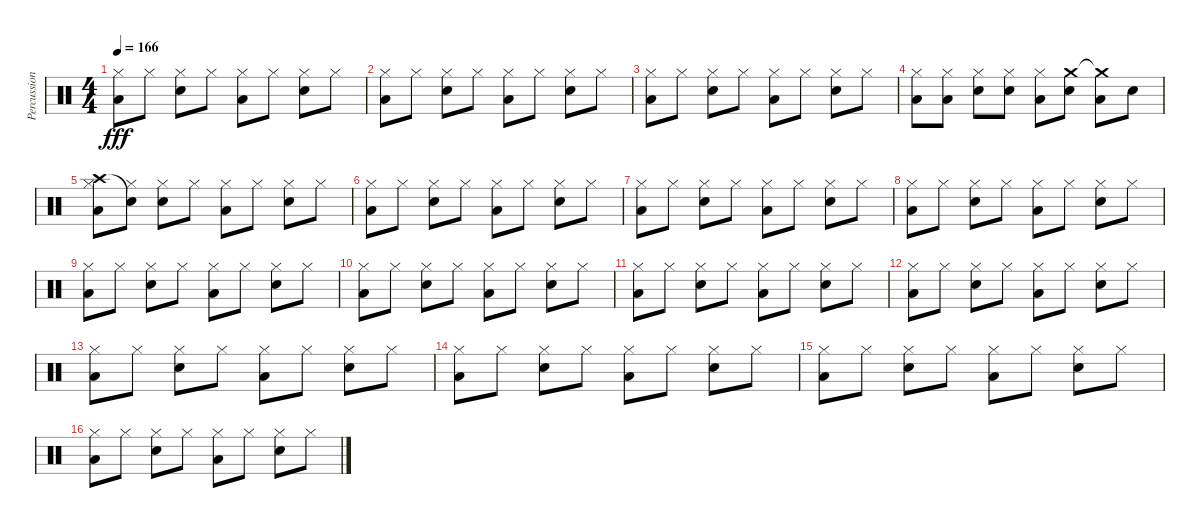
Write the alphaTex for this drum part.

\track ("Percussions" "Percussion") {instrument percussion}
\staff {score}
\articulation defaults
\ts (4 4)
\tempo 166
\clef neutral
\ks c
("Low Tom (hit)" "Hi-Hat (closed)").8{dy fff} "Hi-Hat (closed)".8 ("Snare (hit) 2" "Hi-Hat (closed)").8 "Hi-Hat (closed)".8 ("Low Tom (hit)" "Hi-Hat (closed)").8 "Hi-Hat (closed)".8 ("Snare (hit) 2" "Hi-Hat (closed)").8 "Hi-Hat (closed)".8 |
("Low Tom (hit)" "Hi-Hat (closed)").8 "Hi-Hat (closed)".8 ("Snare (hit) 2" "Hi-Hat (closed)").8 "Hi-Hat (closed)".8 ("Low Tom (hit)" "Hi-Hat (closed)").8 "Hi-Hat (closed)".8 ("Snare (hit) 2" "Hi-Hat (closed)").8 "Hi-Hat (closed)".8 |
("Low Tom (hit)" "Hi-Hat (closed)").8 "Hi-Hat (closed)".8 ("Snare (hit) 2" "Hi-Hat (closed)").8 "Hi-Hat (closed)".8 ("Low Tom (hit)" "Hi-Hat (closed)").8 "Hi-Hat (closed)".8 ("Snare (hit) 2" "Hi-Hat (closed)").8 "Hi-Hat (closed)".8 |
("Low Tom (hit)" "Hi-Hat (closed)").8 ("Low Tom (hit)" "Hi-Hat (closed)").8 ("Snare (hit) 2" "Hi-Hat (closed)").8 ("Snare (hit) 2" "Hi-Hat (closed)").8 ("Low Tom (hit)" "Hi-Hat (closed)").8 ("Crash medium (hit)" "Snare (hit) 2").8 ("Crash medium (hit)"{t} "Low Tom (hit)").8 "Snare (hit) 2".8 |
("Crash high (hit)" "Low Tom (hit)" "Hi-Hat (closed)").8 ("Snare (hit)"{t} "Hi-Hat (closed)").8 ("Snare (hit) 2" "Hi-Hat (closed)").8 "Hi-Hat (closed)".8 ("Low Tom (hit)" "Hi-Hat (closed)").8 "Hi-Hat (closed)".8 ("Snare (hit) 2" "Hi-Hat (closed)").8 "Hi-Hat (closed)".8 |
("Low Tom (hit)" "Hi-Hat (closed)").8 "Hi-Hat (closed)".8 ("Snare (hit) 2" "Hi-Hat (closed)").8 "Hi-Hat (closed)".8 ("Low Tom (hit)" "Hi-Hat (closed)").8 "Hi-Hat (closed)".8 ("Snare (hit) 2" "Hi-Hat (closed)").8 "Hi-Hat (closed)".8 |
("Low Tom (hit)" "Hi-Hat (closed)").8 "Hi-Hat (closed)".8 ("Snare (hit) 2" "Hi-Hat (closed)").8 "Hi-Hat (closed)".8 ("Low Tom (hit)" "Hi-Hat (closed)").8 "Hi-Hat (closed)".8 ("Snare (hit) 2" "Hi-Hat (closed)").8 "Hi-Hat (closed)".8 |
("Low Tom (hit)" "Hi-Hat (closed)").8 "Hi-Hat (closed)".8 ("Snare (hit) 2" "Hi-Hat (closed)").8 "Hi-Hat (closed)".8 ("Low Tom (hit)" "Hi-Hat (closed)").8 "Hi-Hat (closed)".8 ("Snare (hit) 2" "Hi-Hat (closed)").8 "Hi-Hat (closed)".8 |
("Low Tom (hit)" "Hi-Hat (closed)").8 "Hi-Hat (closed)".8 ("Snare (hit) 2" "Hi-Hat (closed)").8 "Hi-Hat (closed)".8 ("Low Tom (hit)" "Hi-Hat (closed)").8 "Hi-Hat (closed)".8 ("Snare (hit) 2" "Hi-Hat (closed)").8 "Hi-Hat (closed)".8 |
("Low Tom (hit)" "Hi-Hat (closed)").8 "Hi-Hat (closed)".8 ("Snare (hit) 2" "Hi-Hat (closed)").8 "Hi-Hat (closed)".8 ("Low Tom (hit)" "Hi-Hat (closed)").8 "Hi-Hat (closed)".8 ("Snare (hit) 2" "Hi-Hat (closed)").8 "Hi-Hat (closed)".8 |
("Low Tom (hit)" "Hi-Hat (closed)").8 "Hi-Hat (closed)".8 ("Snare (hit) 2" "Hi-Hat (closed)").8 "Hi-Hat (closed)".8 ("Low Tom (hit)" "Hi-Hat (closed)").8 "Hi-Hat (closed)".8 ("Snare (hit) 2" "Hi-Hat (closed)").8 "Hi-Hat (closed)".8 |
("Low Tom (hit)" "Hi-Hat (closed)").8 "Hi-Hat (closed)".8 ("Snare (hit) 2" "Hi-Hat (closed)").8 "Hi-Hat (closed)".8 ("Low Tom (hit)" "Hi-Hat (closed)").8 "Hi-Hat (closed)".8 ("Snare (hit) 2" "Hi-Hat (closed)").8 "Hi-Hat (closed)".8 |
("Low Tom (hit)" "Hi-Hat (closed)").8 "Hi-Hat (closed)".8 ("Snare (hit) 2" "Hi-Hat (closed)").8 "Hi-Hat (closed)".8 ("Low Tom (hit)" "Hi-Hat (closed)").8 "Hi-Hat (closed)".8 ("Snare (hit) 2" "Hi-Hat (closed)").8 "Hi-Hat (closed)".8 |
("Low Tom (hit)" "Hi-Hat (closed)").8 "Hi-Hat (closed)".8 ("Snare (hit) 2" "Hi-Hat (closed)").8 "Hi-Hat (closed)".8 ("Low Tom (hit)" "Hi-Hat (closed)").8 "Hi-Hat (closed)".8 ("Snare (hit) 2" "Hi-Hat (closed)").8 "Hi-Hat (closed)".8 |
("Low Tom (hit)" "Hi-Hat (closed)").8 "Hi-Hat (closed)".8 ("Snare (hit) 2" "Hi-Hat (closed)").8 "Hi-Hat (closed)".8 ("Low Tom (hit)" "Hi-Hat (closed)").8 "Hi-Hat (closed)".8 ("Snare (hit) 2" "Hi-Hat (closed)").8 "Hi-Hat (closed)".8 |
("Low Tom (hit)" "Hi-Hat (closed)").8 "Hi-Hat (closed)".8 ("Snare (hit) 2" "Hi-Hat (closed)").8 "Hi-Hat (closed)".8 ("Low Tom (hit)" "Hi-Hat (closed)").8 "Hi-Hat (closed)".8 ("Snare (hit) 2" "Hi-Hat (closed)").8 "Hi-Hat (closed)".8
